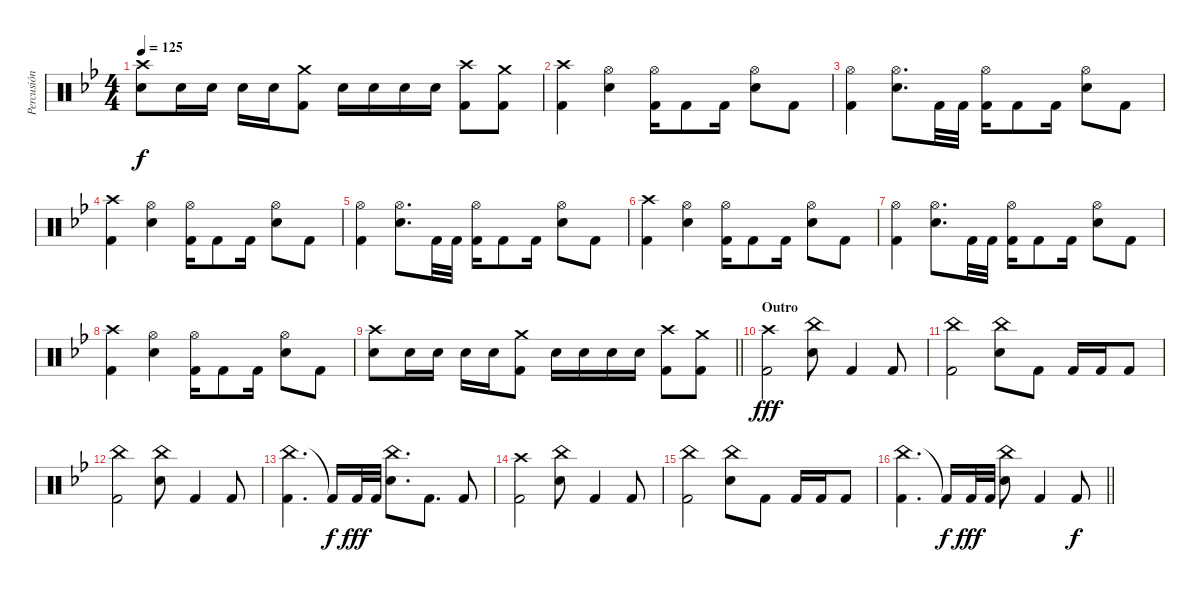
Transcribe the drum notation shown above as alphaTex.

\track ("Percusión" "Percusión") {instrument percussion}
\staff {score}
\articulation defaults
\ts (4 4)
\tempo 125
\clef neutral
\ks gminor
("Crash high (hit)" "Snare (hit) 2").8{dy f} "Snare (hit) 2".16 "Snare (hit) 2".16 "Snare (hit) 2".16 "Snare (hit) 2".16 ("Crash medium (hit)" "Kick (hit) 2").8 "Snare (hit) 2".16 "Snare (hit) 2".16 "Snare (hit) 2".16 "Snare (hit) 2".16 ("Crash high (hit)" "Kick (hit) 2").8 ("Crash medium (hit)" "Kick (hit) 2").8 |
("Crash high (hit)" "Kick (hit) 2").4 ("Hi-Hat (open)" "Snare (hit) 2").4 ("Hi-Hat (open)" "Kick (hit) 2").16 "Kick (hit) 2".8 "Kick (hit) 2".16 ("Hi-Hat (open)" "Snare (hit) 2").8 "Kick (hit) 2".8 |
("Hi-Hat (open)" "Kick (hit) 2").4 ("Hi-Hat (open)" "Snare (hit) 2").8{d} "Kick (hit) 2".32 "Kick (hit) 2".32 ("Hi-Hat (open)" "Kick (hit) 2").16 "Kick (hit) 2".8 "Kick (hit) 2".16 ("Hi-Hat (open)" "Snare (hit) 2").8 "Kick (hit) 2".8 |
("Crash high (hit)" "Kick (hit) 2").4 ("Hi-Hat (open)" "Snare (hit) 2").4 ("Hi-Hat (open)" "Kick (hit) 2").16 "Kick (hit) 2".8 "Kick (hit) 2".16 ("Hi-Hat (open)" "Snare (hit) 2").8 "Kick (hit) 2".8 |
("Hi-Hat (open)" "Kick (hit) 2").4 ("Hi-Hat (open)" "Snare (hit) 2").8{d} "Kick (hit) 2".32 "Kick (hit) 2".32 ("Hi-Hat (open)" "Kick (hit) 2").16 "Kick (hit) 2".8 "Kick (hit) 2".16 ("Hi-Hat (open)" "Snare (hit) 2").8 "Kick (hit) 2".8 |
("Crash high (hit)" "Kick (hit) 2").4 ("Hi-Hat (open)" "Snare (hit) 2").4 ("Hi-Hat (open)" "Kick (hit) 2").16 "Kick (hit) 2".8 "Kick (hit) 2".16 ("Hi-Hat (open)" "Snare (hit) 2").8 "Kick (hit) 2".8 |
("Hi-Hat (open)" "Kick (hit) 2").4 ("Hi-Hat (open)" "Snare (hit) 2").8{d} "Kick (hit) 2".32 "Kick (hit) 2".32 ("Hi-Hat (open)" "Kick (hit) 2").16 "Kick (hit) 2".8 "Kick (hit) 2".16 ("Hi-Hat (open)" "Snare (hit) 2").8 "Kick (hit) 2".8 |
("Crash high (hit)" "Kick (hit) 2").4 ("Hi-Hat (open)" "Snare (hit) 2").4 ("Hi-Hat (open)" "Kick (hit) 2").16 "Kick (hit) 2".8 "Kick (hit) 2".16 ("Hi-Hat (open)" "Snare (hit) 2").8 "Kick (hit) 2".8 |
\barLineRight lightlight
("Crash high (hit)" "Snare (hit) 2").8 "Snare (hit) 2".16 "Snare (hit) 2".16 "Snare (hit) 2".16 "Snare (hit) 2".16 ("Crash medium (hit)" "Kick (hit) 2").8 "Snare (hit) 2".16 "Snare (hit) 2".16 "Snare (hit) 2".16 "Snare (hit) 2".16 ("Crash high (hit)" "Kick (hit) 2").8 ("Crash medium (hit)" "Kick (hit) 2").8 |
\section ("" "Outro")
("Crash high (hit)" "Kick (hit) 2").2{dy fff} ("China (hit)" "Snare (hit) 2").8 "Kick (hit) 2".4 "Kick (hit) 2".8 |
("China (hit)" "Kick (hit) 2").2 ("China (hit)" "Snare (hit) 2").8 "Kick (hit) 2".8 "Kick (hit) 2".16 "Kick (hit) 2".16 "Kick (hit) 2".8 |
("China (hit)" "Kick (hit) 2").2 ("China (hit)" "Snare (hit) 2").8 "Kick (hit) 2".4 "Kick (hit) 2".8 |
("China (hit)" "Kick (hit) 2").4{d} "Kick (hit) 2"{t}.16{dy f} "Kick (hit) 2".32{dy fff} "Kick (hit) 2".32 ("China (hit)" "Snare (hit) 2").8{d} "Kick (hit) 2".8{d} "Kick (hit) 2".8 |
("Crash high (hit)" "Kick (hit) 2").2 ("China (hit)" "Snare (hit) 2").8 "Kick (hit) 2".4 "Kick (hit) 2".8 |
("China (hit)" "Kick (hit) 2").2 ("China (hit)" "Snare (hit) 2").8 "Kick (hit) 2".8 "Kick (hit) 2".16 "Kick (hit) 2".16 "Kick (hit) 2".8 |
\barLineRight lightlight
("China (hit)" "Kick (hit) 2").4{d} "Kick (hit) 2"{t}.16{dy f} "Kick (hit) 2".32{dy fff} "Kick (hit) 2".32 ("China (hit)" "Snare (hit) 2").8 "Kick (hit) 2".4 "Kick (hit) 2".8{dy f}
